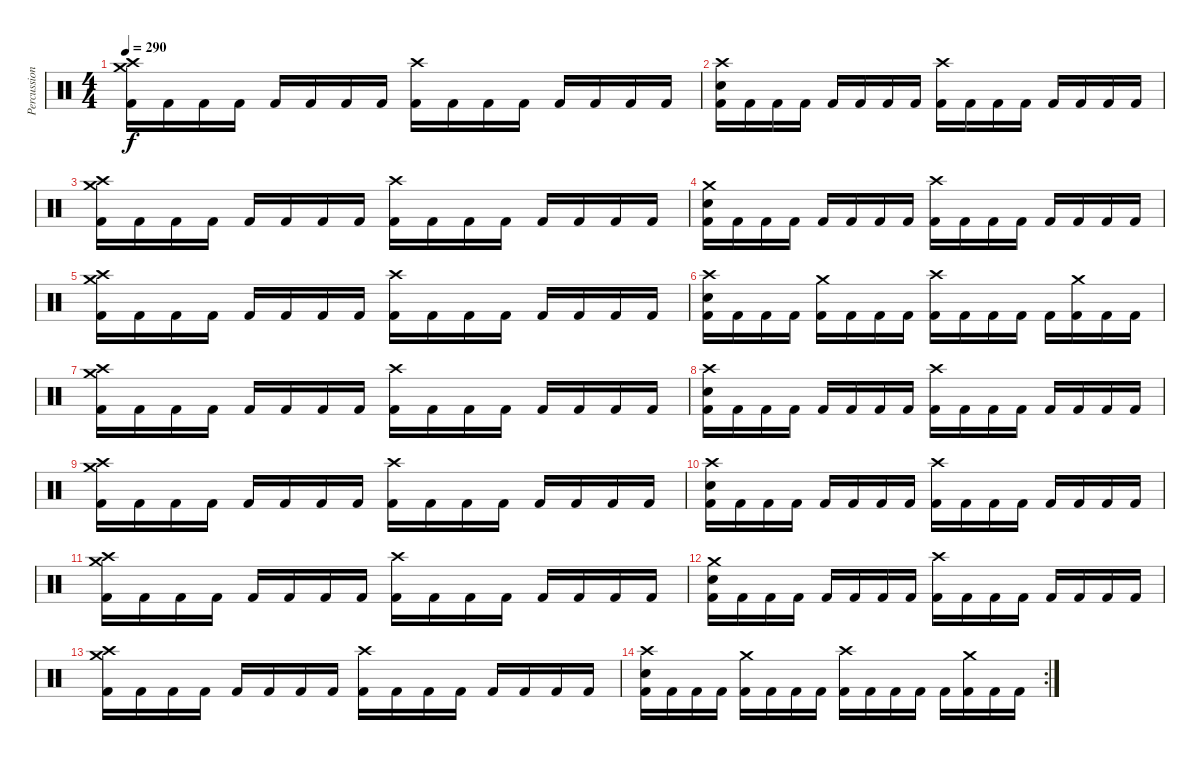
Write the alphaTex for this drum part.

\track ("Percussion" "Percussion") {instrument percussion}
\staff {score}
\articulation defaults
\ts (4 4)
\tempo 290
\clef neutral
\ks c
("Crash high (hit)" "Crash medium (hit)" "Kick (hit) 2").16{dy f} "Kick (hit) 2".16 "Kick (hit) 2".16 "Kick (hit) 2".16 "Kick (hit) 2".16 "Kick (hit) 2".16 "Kick (hit) 2".16 "Kick (hit) 2".16 ("Crash high (hit)" "Kick (hit) 2").16 "Kick (hit) 2".16 "Kick (hit) 2".16 "Kick (hit) 2".16 "Kick (hit) 2".16 "Kick (hit) 2".16 "Kick (hit) 2".16 "Kick (hit) 2".16 |
("Crash high (hit)" "Electric Snare (hit)" "Kick (hit) 2").16 "Kick (hit) 2".16 "Kick (hit) 2".16 "Kick (hit) 2".16 "Kick (hit) 2".16 "Kick (hit) 2".16 "Kick (hit) 2".16 "Kick (hit) 2".16 ("Crash high (hit)" "Kick (hit) 2").16 "Kick (hit) 2".16 "Kick (hit) 2".16 "Kick (hit) 2".16 "Kick (hit) 2".16 "Kick (hit) 2".16 "Kick (hit) 2".16 "Kick (hit) 2".16 |
("Crash high (hit)" "Crash medium (hit)" "Kick (hit) 2").16 "Kick (hit) 2".16 "Kick (hit) 2".16 "Kick (hit) 2".16 "Kick (hit) 2".16 "Kick (hit) 2".16 "Kick (hit) 2".16 "Kick (hit) 2".16 ("Crash high (hit)" "Kick (hit) 2").16 "Kick (hit) 2".16 "Kick (hit) 2".16 "Kick (hit) 2".16 "Kick (hit) 2".16 "Kick (hit) 2".16 "Kick (hit) 2".16 "Kick (hit) 2".16 |
("Crash medium (hit)" "Electric Snare (hit)" "Kick (hit) 2").16 "Kick (hit) 2".16 "Kick (hit) 2".16 "Kick (hit) 2".16 "Kick (hit) 2".16 "Kick (hit) 2".16 "Kick (hit) 2".16 "Kick (hit) 2".16 ("Crash high (hit)" "Kick (hit) 2").16 "Kick (hit) 2".16 "Kick (hit) 2".16 "Kick (hit) 2".16 "Kick (hit) 2".16 "Kick (hit) 2".16 "Kick (hit) 2".16 "Kick (hit) 2".16 |
("Crash high (hit)" "Crash medium (hit)" "Kick (hit) 2").16 "Kick (hit) 2".16 "Kick (hit) 2".16 "Kick (hit) 2".16 "Kick (hit) 2".16 "Kick (hit) 2".16 "Kick (hit) 2".16 "Kick (hit) 2".16 ("Crash high (hit)" "Kick (hit) 2").16 "Kick (hit) 2".16 "Kick (hit) 2".16 "Kick (hit) 2".16 "Kick (hit) 2".16 "Kick (hit) 2".16 "Kick (hit) 2".16 "Kick (hit) 2".16 |
("Crash high (hit)" "Electric Snare (hit)" "Kick (hit) 2").16 "Kick (hit) 2".16 "Kick (hit) 2".16 "Kick (hit) 2".16 ("Crash medium (hit)" "Kick (hit) 2").16 "Kick (hit) 2".16 "Kick (hit) 2".16 "Kick (hit) 2".16 ("Crash high (hit)" "Kick (hit) 2").16 "Kick (hit) 2".16 "Kick (hit) 2".16 "Kick (hit) 2".16 "Kick (hit) 2".16 ("Crash medium (hit)" "Kick (hit) 2").16 "Kick (hit) 2".16 "Kick (hit) 2".16 |
("Crash high (hit)" "Crash medium (hit)" "Kick (hit) 2").16 "Kick (hit) 2".16 "Kick (hit) 2".16 "Kick (hit) 2".16 "Kick (hit) 2".16 "Kick (hit) 2".16 "Kick (hit) 2".16 "Kick (hit) 2".16 ("Crash high (hit)" "Kick (hit) 2").16 "Kick (hit) 2".16 "Kick (hit) 2".16 "Kick (hit) 2".16 "Kick (hit) 2".16 "Kick (hit) 2".16 "Kick (hit) 2".16 "Kick (hit) 2".16 |
("Crash high (hit)" "Electric Snare (hit)" "Kick (hit) 2").16 "Kick (hit) 2".16 "Kick (hit) 2".16 "Kick (hit) 2".16 "Kick (hit) 2".16 "Kick (hit) 2".16 "Kick (hit) 2".16 "Kick (hit) 2".16 ("Crash high (hit)" "Kick (hit) 2").16 "Kick (hit) 2".16 "Kick (hit) 2".16 "Kick (hit) 2".16 "Kick (hit) 2".16 "Kick (hit) 2".16 "Kick (hit) 2".16 "Kick (hit) 2".16 |
("Crash high (hit)" "Crash medium (hit)" "Kick (hit) 2").16 "Kick (hit) 2".16 "Kick (hit) 2".16 "Kick (hit) 2".16 "Kick (hit) 2".16 "Kick (hit) 2".16 "Kick (hit) 2".16 "Kick (hit) 2".16 ("Crash high (hit)" "Kick (hit) 2").16 "Kick (hit) 2".16 "Kick (hit) 2".16 "Kick (hit) 2".16 "Kick (hit) 2".16 "Kick (hit) 2".16 "Kick (hit) 2".16 "Kick (hit) 2".16 |
("Crash high (hit)" "Electric Snare (hit)" "Kick (hit) 2").16 "Kick (hit) 2".16 "Kick (hit) 2".16 "Kick (hit) 2".16 "Kick (hit) 2".16 "Kick (hit) 2".16 "Kick (hit) 2".16 "Kick (hit) 2".16 ("Crash high (hit)" "Kick (hit) 2").16 "Kick (hit) 2".16 "Kick (hit) 2".16 "Kick (hit) 2".16 "Kick (hit) 2".16 "Kick (hit) 2".16 "Kick (hit) 2".16 "Kick (hit) 2".16 |
("Crash high (hit)" "Crash medium (hit)" "Kick (hit) 2").16 "Kick (hit) 2".16 "Kick (hit) 2".16 "Kick (hit) 2".16 "Kick (hit) 2".16 "Kick (hit) 2".16 "Kick (hit) 2".16 "Kick (hit) 2".16 ("Crash high (hit)" "Kick (hit) 2").16 "Kick (hit) 2".16 "Kick (hit) 2".16 "Kick (hit) 2".16 "Kick (hit) 2".16 "Kick (hit) 2".16 "Kick (hit) 2".16 "Kick (hit) 2".16 |
("Crash medium (hit)" "Electric Snare (hit)" "Kick (hit) 2").16 "Kick (hit) 2".16 "Kick (hit) 2".16 "Kick (hit) 2".16 "Kick (hit) 2".16 "Kick (hit) 2".16 "Kick (hit) 2".16 "Kick (hit) 2".16 ("Crash high (hit)" "Kick (hit) 2").16 "Kick (hit) 2".16 "Kick (hit) 2".16 "Kick (hit) 2".16 "Kick (hit) 2".16 "Kick (hit) 2".16 "Kick (hit) 2".16 "Kick (hit) 2".16 |
("Crash high (hit)" "Crash medium (hit)" "Kick (hit) 2").16 "Kick (hit) 2".16 "Kick (hit) 2".16 "Kick (hit) 2".16 "Kick (hit) 2".16 "Kick (hit) 2".16 "Kick (hit) 2".16 "Kick (hit) 2".16 ("Crash high (hit)" "Kick (hit) 2").16 "Kick (hit) 2".16 "Kick (hit) 2".16 "Kick (hit) 2".16 "Kick (hit) 2".16 "Kick (hit) 2".16 "Kick (hit) 2".16 "Kick (hit) 2".16 |
\rc 2
("Crash high (hit)" "Electric Snare (hit)" "Kick (hit) 2").16 "Kick (hit) 2".16 "Kick (hit) 2".16 "Kick (hit) 2".16 ("Crash medium (hit)" "Kick (hit) 2").16 "Kick (hit) 2".16 "Kick (hit) 2".16 "Kick (hit) 2".16 ("Crash high (hit)" "Kick (hit) 2").16 "Kick (hit) 2".16 "Kick (hit) 2".16 "Kick (hit) 2".16 "Kick (hit) 2".16 ("Crash medium (hit)" "Kick (hit) 2").16 "Kick (hit) 2".16 "Kick (hit) 2".16
